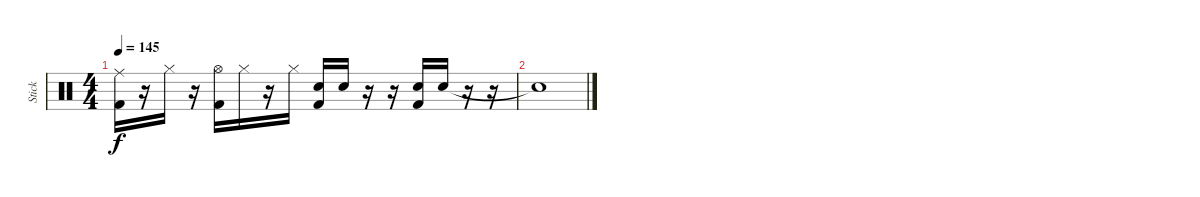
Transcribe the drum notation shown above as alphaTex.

\track ("Stick" "Stick") {instrument percussion}
\staff {score}
\articulation defaults
\ts (4 4)
\tempo 145
\clef neutral
\ks c
("Kick (hit) 2" "Ride (middle)").16{dy f} r.16 "Hi-Hat (closed)".16 r.16 ("Kick (hit) 2" "Hi-Hat (open)").16 "Hi-Hat (closed)".16 r.16 "Hi-Hat (closed)".16 ("Kick (hit) 2" "Electric Snare (hit)").16 "Electric Snare (hit)".16 r.16 r.16 ("Kick (hit) 2" "Electric Snare (hit)").16 "Electric Snare (hit)".16 r.16 r.16 |
"Snare (hit)"{t}.1
